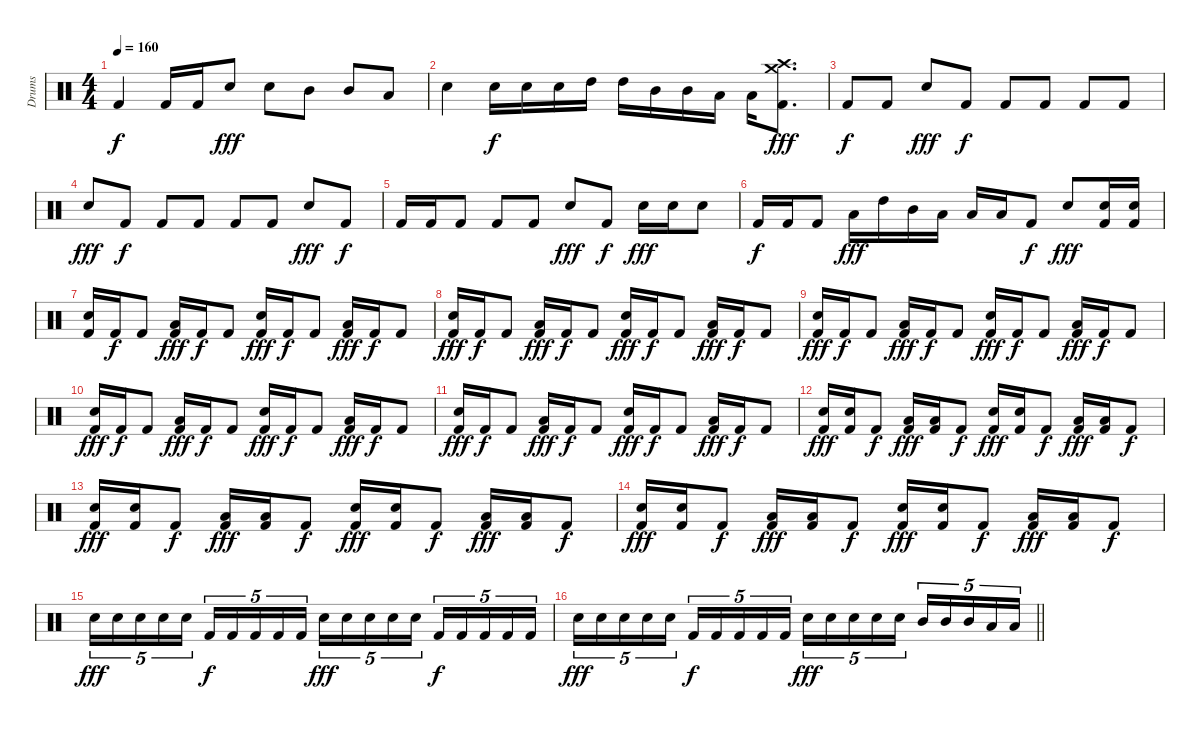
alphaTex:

\track ("Drums" "Drums") {instrument percussion}
\staff {score}
\articulation defaults
\ts (4 4)
\tempo 160
\clef neutral
\ks c "Kick (hit) 2".4{dy f} "Kick (hit) 2".16 "Kick (hit) 2".16 "Electric Snare (hit)".8{dy fff} "Electric Snare (hit)".8 "Mid Tom (hit)".8 "Mid Tom (hit)".8 "Low Tom (hit)".8
|
"Electric Snare (hit)".4 "Electric Snare (hit)".16{dy f} "Electric Snare (hit)".16 "Electric Snare (hit)".16 "High Tom (hit)".16 "High Tom (hit)".16 "Mid Tom (hit)".16 "Mid Tom (hit)".16 "Low Tom (hit)".16 "Low Tom (hit)".16 ("Crash high (hit)" "Crash medium (hit)" "Kick (hit) 2").8{d dy fff} |
"Kick (hit) 2".8{dy f} "Kick (hit) 2".8 "Electric Snare (hit)".8{dy fff} "Kick (hit) 2".8{dy f} "Kick (hit) 2".8 "Kick (hit) 2".8 "Kick (hit) 2".8 "Kick (hit) 2".8 |
"Electric Snare (hit)".8{dy fff} "Kick (hit) 2".8{dy f} "Kick (hit) 2".8 "Kick (hit) 2".8 "Kick (hit) 2".8 "Kick (hit) 2".8 "Electric Snare (hit)".8{dy fff} "Kick (hit) 2".8{dy f} |
"Kick (hit) 2".16 "Kick (hit) 2".16 "Kick (hit) 2".8 "Kick (hit) 2".8 "Kick (hit) 2".8 "Electric Snare (hit)".8{dy fff} "Kick (hit) 2".8{dy f} "Electric Snare (hit)".16{dy fff} "Electric Snare (hit)".16 "Electric Snare (hit)".8 |
"Kick (hit) 2".16{dy f} "Kick (hit) 2".16 "Kick (hit) 2".8 "Low Tom (hit)".16{dy fff} "High Tom (hit)".16 "Mid Tom (hit)".16 "Low Tom (hit)".16 "Low Tom (hit)".16 "Low Tom (hit)".16 "Kick (hit) 2".8{dy f} "Electric Snare (hit)".8{dy fff} ("Electric Snare (hit)" "Kick (hit) 2").16 ("Electric Snare (hit)" "Kick (hit) 2").16 |
("Electric Snare (hit)" "Kick (hit) 2").16 "Kick (hit) 2".16{dy f} "Kick (hit) 2".8 ("Low Tom (hit)" "Kick (hit) 2").16{dy fff} "Kick (hit) 2".16{dy f} "Kick (hit) 2".8 ("Electric Snare (hit)" "Kick (hit) 2").16{dy fff} "Kick (hit) 2".16{dy f} "Kick (hit) 2".8 ("Low Tom (hit)" "Kick (hit) 2").16{dy fff} "Kick (hit) 2".16{dy f} "Kick (hit) 2".8 |
("Electric Snare (hit)" "Kick (hit) 2").16{dy fff} "Kick (hit) 2".16{dy f} "Kick (hit) 2".8 ("Low Tom (hit)" "Kick (hit) 2").16{dy fff} "Kick (hit) 2".16{dy f} "Kick (hit) 2".8 ("Electric Snare (hit)" "Kick (hit) 2").16{dy fff} "Kick (hit) 2".16{dy f} "Kick (hit) 2".8 ("Low Tom (hit)" "Kick (hit) 2").16{dy fff} "Kick (hit) 2".16{dy f} "Kick (hit) 2".8 |
("Electric Snare (hit)" "Kick (hit) 2").16{dy fff} "Kick (hit) 2".16{dy f} "Kick (hit) 2".8 ("Low Tom (hit)" "Kick (hit) 2").16{dy fff} "Kick (hit) 2".16{dy f} "Kick (hit) 2".8 ("Electric Snare (hit)" "Kick (hit) 2").16{dy fff} "Kick (hit) 2".16{dy f} "Kick (hit) 2".8 ("Low Tom (hit)" "Kick (hit) 2").16{dy fff} "Kick (hit) 2".16{dy f} "Kick (hit) 2".8 |
("Electric Snare (hit)" "Kick (hit) 2").16{dy fff} "Kick (hit) 2".16{dy f} "Kick (hit) 2".8 ("Low Tom (hit)" "Kick (hit) 2").16{dy fff} "Kick (hit) 2".16{dy f} "Kick (hit) 2".8 ("Electric Snare (hit)" "Kick (hit) 2").16{dy fff} "Kick (hit) 2".16{dy f} "Kick (hit) 2".8 ("Low Tom (hit)" "Kick (hit) 2").16{dy fff} "Kick (hit) 2".16{dy f} "Kick (hit) 2".8 |
("Electric Snare (hit)" "Kick (hit) 2").16{dy fff} "Kick (hit) 2".16{dy f} "Kick (hit) 2".8 ("Low Tom (hit)" "Kick (hit) 2").16{dy fff} "Kick (hit) 2".16{dy f} "Kick (hit) 2".8 ("Electric Snare (hit)" "Kick (hit) 2").16{dy fff} "Kick (hit) 2".16{dy f} "Kick (hit) 2".8 ("Low Tom (hit)" "Kick (hit) 2").16{dy fff} "Kick (hit) 2".16{dy f} "Kick (hit) 2".8 |
("Electric Snare (hit)" "Kick (hit) 2").16{dy fff} ("Electric Snare (hit)" "Kick (hit) 2").16 "Kick (hit) 2".8{dy f} ("Low Tom (hit)" "Kick (hit) 2").16{dy fff} ("Low Tom (hit)" "Kick (hit) 2").16 "Kick (hit) 2".8{dy f} ("Electric Snare (hit)" "Kick (hit) 2").16{dy fff} ("Electric Snare (hit)" "Kick (hit) 2").16 "Kick (hit) 2".8{dy f} ("Low Tom (hit)" "Kick (hit) 2").16{dy fff} ("Low Tom (hit)" "Kick (hit) 2").16 "Kick (hit) 2".8{dy f} |
("Electric Snare (hit)" "Kick (hit) 2").16{dy fff} ("Electric Snare (hit)" "Kick (hit) 2").16 "Kick (hit) 2".8{dy f} ("Low Tom (hit)" "Kick (hit) 2").16{dy fff} ("Low Tom (hit)" "Kick (hit) 2").16 "Kick (hit) 2".8{dy f} ("Electric Snare (hit)" "Kick (hit) 2").16{dy fff} ("Electric Snare (hit)" "Kick (hit) 2").16 "Kick (hit) 2".8{dy f} ("Low Tom (hit)" "Kick (hit) 2").16{dy fff} ("Low Tom (hit)" "Kick (hit) 2").16 "Kick (hit) 2".8{dy f} |
("Electric Snare (hit)" "Kick (hit) 2").16{dy fff} ("Electric Snare (hit)" "Kick (hit) 2").16 "Kick (hit) 2".8{dy f} ("Low Tom (hit)" "Kick (hit) 2").16{dy fff} ("Low Tom (hit)" "Kick (hit) 2").16 "Kick (hit) 2".8{dy f} ("Electric Snare (hit)" "Kick (hit) 2").16{dy fff} ("Electric Snare (hit)" "Kick (hit) 2").16 "Kick (hit) 2".8{dy f} ("Low Tom (hit)" "Kick (hit) 2").16{dy fff} ("Low Tom (hit)" "Kick (hit) 2").16 "Kick (hit) 2".8{dy f} |
"Electric Snare (hit)".16{tu (5 4) dy fff} "Electric Snare (hit)".16{tu (5 4)} "Electric Snare (hit)".16{tu (5 4)} "Electric Snare (hit)".16{tu (5 4)} "Electric Snare (hit)".16{tu (5 4)} "Kick (hit) 2".16{tu (5 4) dy f} "Kick (hit) 2".16{tu (5 4)} "Kick (hit) 2".16{tu (5 4)} "Kick (hit) 2".16{tu (5 4)} "Kick (hit) 2".16{tu (5 4)} "Electric Snare (hit)".16{tu (5 4) dy fff} "Electric Snare (hit)".16{tu (5 4)} "Electric Snare (hit)".16{tu (5 4)} "Electric Snare (hit)".16{tu (5 4)} "Electric Snare (hit)".16{tu (5 4)} "Kick (hit) 2".16{tu (5 4) dy f} "Kick (hit) 2".16{tu (5 4)} "Kick (hit) 2".16{tu (5 4)} "Kick (hit) 2".16{tu (5 4)} "Kick (hit) 2".16{tu (5 4)} |
\barLineRight lightlight "Electric Snare (hit)".16{tu (5 4) dy fff} "Electric Snare (hit)".16{tu (5 4)} "Electric Snare (hit)".16{tu (5 4)} "Electric Snare (hit)".16{tu (5 4)} "Electric Snare (hit)".16{tu (5 4)} "Kick (hit) 2".16{tu (5 4) dy f} "Kick (hit) 2".16{tu (5 4)} "Kick (hit) 2".16{tu (5 4)} "Kick (hit) 2".16{tu (5 4)} "Kick (hit) 2".16{tu (5 4)} "Electric Snare (hit)".16{tu (5 4) dy fff} "Electric Snare (hit)".16{tu (5 4)} "Electric Snare (hit)".16{tu (5 4)} "Electric Snare (hit)".16{tu (5 4)} "Electric Snare (hit)".16{tu (5 4)} "Mid Tom (hit)".16{tu (5 4)} "Mid Tom (hit)".16{tu (5 4)} "Mid Tom (hit)".16{tu (5 4)} "Low Tom (hit)".16{tu (5 4)} "Low Tom (hit)".16{tu (5 4)}
